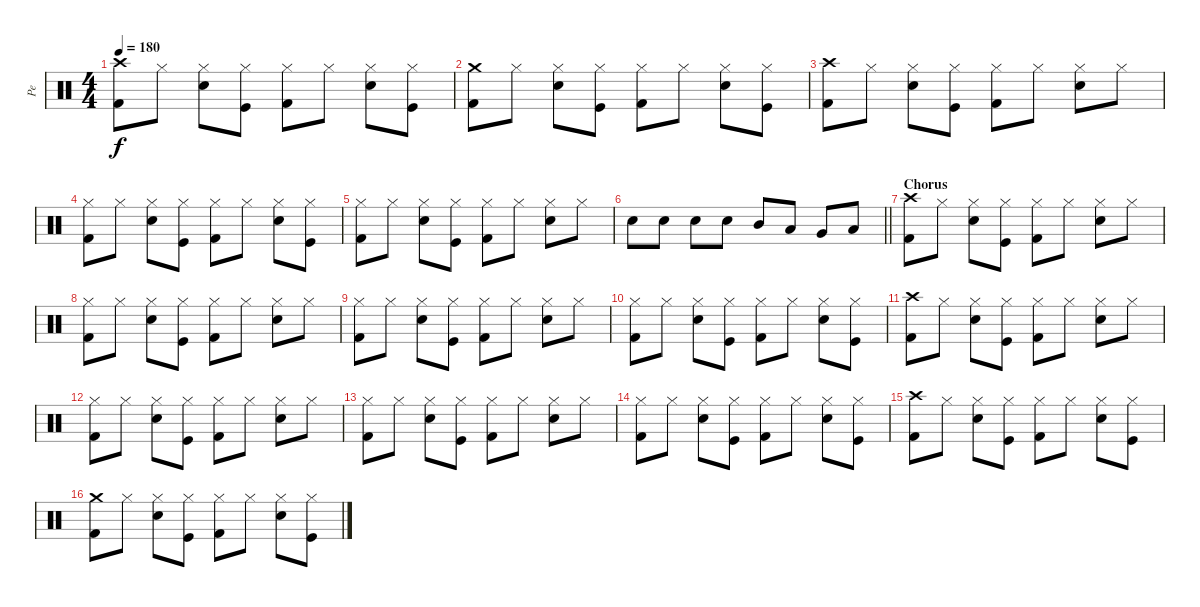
\track ("Pe" "Pe") {instrument percussion}
\staff {score}
\articulation defaults
\ts (4 4)
\tempo 180
\clef neutral
\ks c
("Kick (hit) 2" "Crash high (hit)").8{dy f} "Hi-Hat (closed)".8 ("Electric Snare (hit)" "Hi-Hat (closed)").8 ("Kick (hit)" "Hi-Hat (closed)").8 ("Kick (hit) 2" "Hi-Hat (closed)").8 "Hi-Hat (closed)".8 ("Electric Snare (hit)" "Hi-Hat (closed)").8 ("Kick (hit)" "Hi-Hat (closed)").8 |
("Kick (hit) 2" "Crash medium (hit)").8 "Hi-Hat (closed)".8 ("Electric Snare (hit)" "Hi-Hat (closed)").8 ("Kick (hit)" "Hi-Hat (closed)").8 ("Kick (hit) 2" "Hi-Hat (closed)").8 "Hi-Hat (closed)".8 ("Electric Snare (hit)" "Hi-Hat (closed)").8 ("Kick (hit)" "Hi-Hat (closed)").8 |
("Kick (hit) 2" "Crash high (hit)").8 "Hi-Hat (closed)".8 ("Electric Snare (hit)" "Hi-Hat (closed)").8 ("Kick (hit)" "Hi-Hat (closed)").8 ("Kick (hit) 2" "Hi-Hat (closed)").8 "Hi-Hat (closed)".8 ("Electric Snare (hit)" "Hi-Hat (closed)").8 "Hi-Hat (closed)".8 |
("Kick (hit) 2" "Hi-Hat (closed)").8 "Hi-Hat (closed)".8 ("Electric Snare (hit)" "Hi-Hat (closed)").8 ("Kick (hit)" "Hi-Hat (closed)").8 ("Kick (hit) 2" "Hi-Hat (closed)").8 "Hi-Hat (closed)".8 ("Electric Snare (hit)" "Hi-Hat (closed)").8 ("Kick (hit)" "Hi-Hat (closed)").8 |
("Kick (hit) 2" "Hi-Hat (closed)").8 "Hi-Hat (closed)".8 ("Electric Snare (hit)" "Hi-Hat (closed)").8 ("Kick (hit)" "Hi-Hat (closed)").8 ("Kick (hit) 2" "Hi-Hat (closed)").8 "Hi-Hat (closed)".8 ("Electric Snare (hit)" "Hi-Hat (closed)").8 "Hi-Hat (closed)".8 |
\barLineRight lightlight "Electric Snare (hit)".8 "Electric Snare (hit)".8 "Electric Snare (hit)".8 "Electric Snare (hit)".8 "Mid Tom (hit)".8 "Low Tom (hit)".8 "Very Low Tom (hit)".8 "Low Floor Tom (hit)".8
|
\section ("" "Chorus")
("Kick (hit) 2" "Crash high (hit)").8 "Hi-Hat (closed)".8 ("Electric Snare (hit)" "Hi-Hat (closed)").8 ("Kick (hit)" "Hi-Hat (closed)").8 ("Kick (hit) 2" "Hi-Hat (closed)").8 "Hi-Hat (closed)".8 ("Electric Snare (hit)" "Hi-Hat (closed)").8 "Hi-Hat (closed)".8 |
("Kick (hit) 2" "Hi-Hat (closed)").8 "Hi-Hat (closed)".8 ("Electric Snare (hit)" "Hi-Hat (closed)").8 ("Kick (hit)" "Hi-Hat (closed)").8 ("Kick (hit) 2" "Hi-Hat (closed)").8 "Hi-Hat (closed)".8 ("Electric Snare (hit)" "Hi-Hat (closed)").8 "Hi-Hat (closed)".8 |
("Kick (hit) 2" "Hi-Hat (closed)").8 "Hi-Hat (closed)".8 ("Electric Snare (hit)" "Hi-Hat (closed)").8 ("Kick (hit)" "Hi-Hat (closed)").8 ("Kick (hit) 2" "Hi-Hat (closed)").8 "Hi-Hat (closed)".8 ("Electric Snare (hit)" "Hi-Hat (closed)").8 "Hi-Hat (closed)".8 |
("Kick (hit) 2" "Hi-Hat (closed)").8 "Hi-Hat (closed)".8 ("Electric Snare (hit)" "Hi-Hat (closed)").8 ("Kick (hit)" "Hi-Hat (closed)").8 ("Kick (hit) 2" "Hi-Hat (closed)").8 "Hi-Hat (closed)".8 ("Electric Snare (hit)" "Hi-Hat (closed)").8 ("Kick (hit)" "Hi-Hat (closed)").8 |
("Kick (hit) 2" "Crash high (hit)").8 "Hi-Hat (closed)".8 ("Electric Snare (hit)" "Hi-Hat (closed)").8 ("Kick (hit)" "Hi-Hat (closed)").8 ("Kick (hit) 2" "Hi-Hat (closed)").8 "Hi-Hat (closed)".8 ("Electric Snare (hit)" "Hi-Hat (closed)").8 "Hi-Hat (closed)".8 |
("Kick (hit) 2" "Hi-Hat (closed)").8 "Hi-Hat (closed)".8 ("Electric Snare (hit)" "Hi-Hat (closed)").8 ("Kick (hit)" "Hi-Hat (closed)").8 ("Kick (hit) 2" "Hi-Hat (closed)").8 "Hi-Hat (closed)".8 ("Electric Snare (hit)" "Hi-Hat (closed)").8 "Hi-Hat (closed)".8 |
("Kick (hit) 2" "Hi-Hat (closed)").8 "Hi-Hat (closed)".8 ("Electric Snare (hit)" "Hi-Hat (closed)").8 ("Kick (hit)" "Hi-Hat (closed)").8 ("Kick (hit) 2" "Hi-Hat (closed)").8 "Hi-Hat (closed)".8 ("Electric Snare (hit)" "Hi-Hat (closed)").8 "Hi-Hat (closed)".8 |
("Kick (hit) 2" "Hi-Hat (closed)").8 "Hi-Hat (closed)".8 ("Electric Snare (hit)" "Hi-Hat (closed)").8 ("Kick (hit)" "Hi-Hat (closed)").8 ("Kick (hit) 2" "Hi-Hat (closed)").8 "Hi-Hat (closed)".8 ("Electric Snare (hit)" "Hi-Hat (closed)").8 ("Kick (hit)" "Hi-Hat (closed)").8 |
("Kick (hit) 2" "Crash high (hit)").8 "Hi-Hat (closed)".8 ("Electric Snare (hit)" "Hi-Hat (closed)").8 ("Kick (hit)" "Hi-Hat (closed)").8 ("Kick (hit) 2" "Hi-Hat (closed)").8 "Hi-Hat (closed)".8 ("Electric Snare (hit)" "Hi-Hat (closed)").8 ("Kick (hit)" "Hi-Hat (closed)").8 |
("Kick (hit) 2" "Crash medium (hit)").8 "Hi-Hat (closed)".8 ("Electric Snare (hit)" "Hi-Hat (closed)").8 ("Kick (hit)" "Hi-Hat (closed)").8 ("Kick (hit) 2" "Hi-Hat (closed)").8 "Hi-Hat (closed)".8 ("Electric Snare (hit)" "Hi-Hat (closed)").8 ("Kick (hit)" "Hi-Hat (closed)").8
